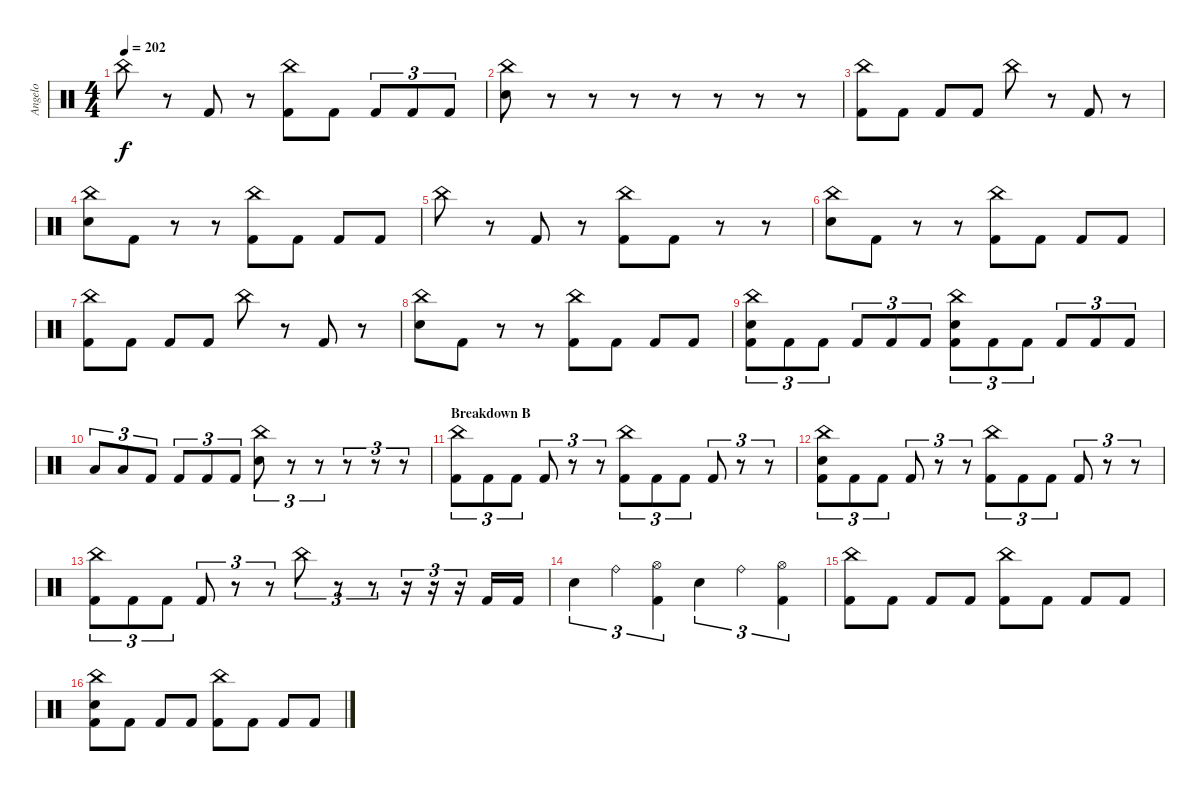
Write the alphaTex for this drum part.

\track ("Angelo" "Angelo") {instrument percussion}
\staff {score}
\articulation defaults
\ts (4 4)
\tempo 202
\clef neutral
\ks c "China (hit)".8{dy f}
r.8 "Kick (hit) 2".8 r.8 ("China (hit)" "Kick (hit) 2").8 "Kick (hit) 2".8 "Kick (hit) 2".8{tu (3 2)} "Kick (hit) 2".8{tu (3 2)} "Kick (hit) 2".8{tu (3 2)} |
("China (hit)" "Electric Snare (hit)").8 r.8 r.8 r.8 r.8 r.8 r.8 r.8 |
("China (hit)" "Kick (hit) 2").8 "Kick (hit) 2".8 "Kick (hit) 2".8 "Kick (hit) 2".8 "China (hit)".8 r.8 "Kick (hit) 2".8 r.8 |
("China (hit)" "Electric Snare (hit)").8 "Kick (hit) 2".8 r.8 r.8 ("China (hit)" "Kick (hit) 2").8 "Kick (hit) 2".8 "Kick (hit) 2".8 "Kick (hit) 2".8 |
"China (hit)".8 r.8 "Kick (hit) 2".8 r.8 ("China (hit)" "Kick (hit) 2").8 "Kick (hit) 2".8 r.8 r.8 |
("China (hit)" "Electric Snare (hit)").8 "Kick (hit) 2".8 r.8 r.8 ("China (hit)" "Kick (hit) 2").8 "Kick (hit) 2".8 "Kick (hit) 2".8 "Kick (hit) 2".8 |
("China (hit)" "Kick (hit) 2").8 "Kick (hit) 2".8 "Kick (hit) 2".8 "Kick (hit) 2".8 "China (hit)".8 r.8 "Kick (hit) 2".8 r.8 |
("China (hit)" "Electric Snare (hit)").8 "Kick (hit) 2".8 r.8 r.8 ("China (hit)" "Kick (hit) 2").8 "Kick (hit) 2".8 "Kick (hit) 2".8 "Kick (hit) 2".8 |
("China (hit)" "Electric Snare (hit)" "Kick (hit) 2").8{tu (3 2)} "Kick (hit) 2".8{tu (3 2)} "Kick (hit) 2".8{tu (3 2)} "Kick (hit) 2".8{tu (3 2)} "Kick (hit) 2".8{tu (3 2)} "Kick (hit) 2".8{tu (3 2)} ("China (hit)" "Electric Snare (hit)" "Kick (hit) 2").8{tu (3 2)} "Kick (hit) 2".8{tu (3 2)} "Kick (hit) 2".8{tu (3 2)} "Kick (hit) 2".8{tu (3 2)} "Kick (hit) 2".8{tu (3 2)} "Kick (hit) 2".8{tu (3 2)} |
"Low Tom (hit)".8{tu (3 2)} "Low Tom (hit)".8{tu (3 2)} "Kick (hit) 2".8{tu (3 2)} "Kick (hit) 2".8{tu (3 2)} "Kick (hit) 2".8{tu (3 2)} "Kick (hit) 2".8{tu (3 2)} ("China (hit)" "Electric Snare (hit)").8{tu (3 2)} r.8{tu (3 2)} r.8{tu (3 2)} r.8{tu (3 2)} r.8{tu (3 2)} r.8{tu (3 2)} |
\section ("" "Breakdown B")
("China (hit)" "Kick (hit) 2").8{tu (3 2)} "Kick (hit) 2".8{tu (3 2)} "Kick (hit) 2".8{tu (3 2)} "Kick (hit) 2".8{tu (3 2)} r.8{tu (3 2)} r.8{tu (3 2)} ("China (hit)" "Kick (hit) 2").8{tu (3 2)} "Kick (hit) 2".8{tu (3 2)} "Kick (hit) 2".8{tu (3 2)} "Kick (hit) 2".8{tu (3 2)} r.8{tu (3 2)} r.8{tu (3 2)} |
("China (hit)" "Electric Snare (hit)" "Kick (hit) 2").8{tu (3 2)} "Kick (hit) 2".8{tu (3 2)} "Kick (hit) 2".8{tu (3 2)} "Kick (hit) 2".8{tu (3 2)} r.8{tu (3 2)} r.8{tu (3 2)} ("China (hit)" "Kick (hit) 2").8{tu (3 2)} "Kick (hit) 2".8{tu (3 2)} "Kick (hit) 2".8{tu (3 2)} "Kick (hit) 2".8{tu (3 2)} r.8{tu (3 2)} r.8{tu (3 2)} |
("China (hit)" "Kick (hit) 2").8{tu (3 2)} "Kick (hit) 2".8{tu (3 2)} "Kick (hit) 2".8{tu (3 2)} "Kick (hit) 2".8{tu (3 2)} r.8{tu (3 2)} r.8{tu (3 2)} "China (hit)".8{tu (3 2)} r.8{tu (3 2)} r.8{tu (3 2)} r.16{tu (3 2)} r.16{tu (3 2)} r.16{tu (3 2)} "Kick (hit) 2".16 "Kick (hit) 2".16 |
"Electric Snare (hit)".4{tu (3 2)} "Ride (bell)".4{tu (3 2)} ("Hi-Hat (open)" "Kick (hit) 2").4{tu (3 2)} "Electric Snare (hit)".4{tu (3 2)} "Ride (bell)".4{tu (3 2)} ("Hi-Hat (open)" "Kick (hit) 2").4{tu (3 2)} |
("China (hit)" "Kick (hit) 2").8 "Kick (hit) 2".8 "Kick (hit) 2".8 "Kick (hit) 2".8 ("China (hit)" "Kick (hit) 2").8 "Kick (hit) 2".8 "Kick (hit) 2".8 "Kick (hit) 2".8 |
("China (hit)" "Electric Snare (hit)" "Kick (hit) 2").8 "Kick (hit) 2".8 "Kick (hit) 2".8 "Kick (hit) 2".8 ("China (hit)" "Kick (hit) 2").8 "Kick (hit) 2".8 "Kick (hit) 2".8 "Kick (hit) 2".8
